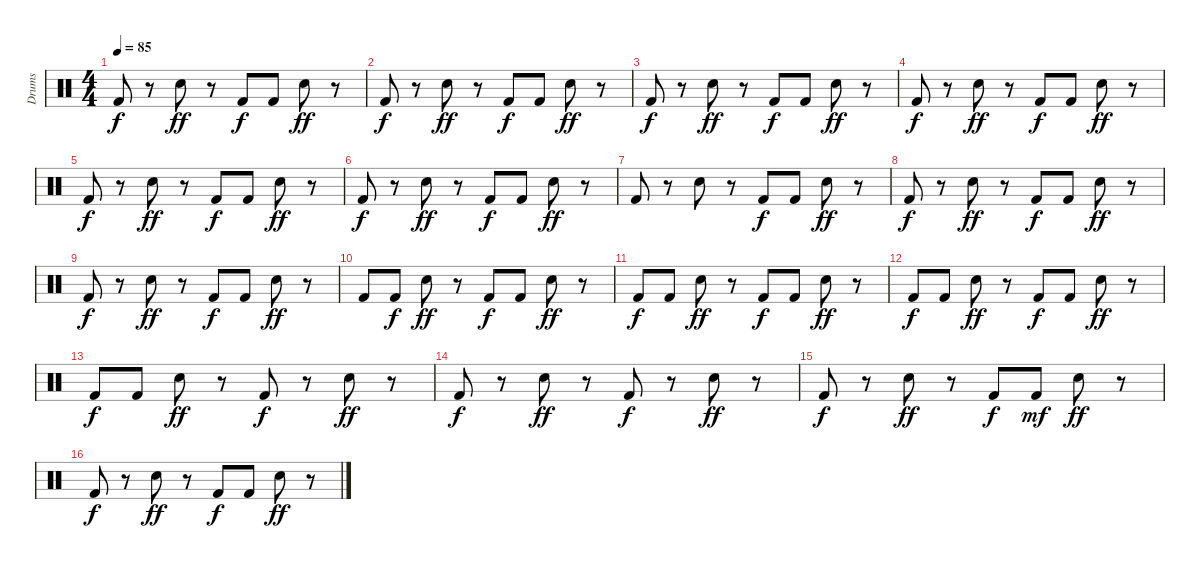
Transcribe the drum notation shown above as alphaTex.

\track ("Drums               " "Drums     ") {instrument percussion}
\staff {score}
\articulation defaults
\ts (4 4)
\tempo 85
\clef neutral
\ks c "Kick (hit) 2".8{dy f}
r.8 "Electric Snare (hit)".8{dy ff} r.8 "Kick (hit) 2".8{dy f} "Kick (hit) 2".8 "Electric Snare (hit)".8{dy ff} r.8 |
"Kick (hit) 2".8{dy f} r.8 "Electric Snare (hit)".8{dy ff} r.8 "Kick (hit) 2".8{dy f} "Kick (hit) 2".8 "Electric Snare (hit)".8{dy ff} r.8 |
"Kick (hit) 2".8{dy f} r.8 "Electric Snare (hit)".8{dy ff} r.8 "Kick (hit) 2".8{dy f} "Kick (hit) 2".8 "Electric Snare (hit)".8{dy ff} r.8 |
"Kick (hit) 2".8{dy f} r.8 "Electric Snare (hit)".8{dy ff} r.8 "Kick (hit) 2".8{dy f} "Kick (hit) 2".8 "Electric Snare (hit)".8{dy ff} r.8 |
"Kick (hit) 2".8{dy f} r.8 "Electric Snare (hit)".8{dy ff} r.8 "Kick (hit) 2".8{dy f} "Kick (hit) 2".8 "Electric Snare (hit)".8{dy ff} r.8 |
"Kick (hit) 2".8{dy f} r.8 "Electric Snare (hit)".8{dy ff} r.8 "Kick (hit) 2".8{dy f} "Kick (hit) 2".8 "Electric Snare (hit)".8{dy ff} r.8 |
"Kick (hit) 2".8 r.8 "Electric Snare (hit)".8 r.8 "Kick (hit) 2".8{dy f} "Kick (hit) 2".8 "Electric Snare (hit)".8{dy ff} r.8 |
"Kick (hit) 2".8{dy f} r.8 "Electric Snare (hit)".8{dy ff} r.8 "Kick (hit) 2".8{dy f} "Kick (hit) 2".8 "Electric Snare (hit)".8{dy ff} r.8 |
"Kick (hit) 2".8{dy f} r.8 "Electric Snare (hit)".8{dy ff} r.8 "Kick (hit) 2".8{dy f} "Kick (hit) 2".8 "Electric Snare (hit)".8{dy ff} r.8 |
"Kick (hit) 2".8 "Kick (hit) 2".8{dy f} "Electric Snare (hit)".8{dy ff} r.8 "Kick (hit) 2".8{dy f} "Kick (hit) 2".8 "Electric Snare (hit)".8{dy ff} r.8 |
"Kick (hit) 2".8{dy f} "Kick (hit) 2".8 "Electric Snare (hit)".8{dy ff} r.8 "Kick (hit) 2".8{dy f} "Kick (hit) 2".8 "Electric Snare (hit)".8{dy ff} r.8 |
"Kick (hit) 2".8{dy f} "Kick (hit) 2".8 "Electric Snare (hit)".8{dy ff} r.8 "Kick (hit) 2".8{dy f} "Kick (hit) 2".8 "Electric Snare (hit)".8{dy ff} r.8 |
"Kick (hit) 2".8{dy f} "Kick (hit) 2".8 "Electric Snare (hit)".8{dy ff} r.8 "Kick (hit) 2".8{dy f} r.8 "Electric Snare (hit)".8{dy ff} r.8 |
"Kick (hit) 2".8{dy f} r.8 "Electric Snare (hit)".8{dy ff} r.8 "Kick (hit) 2".8{dy f} r.8 "Electric Snare (hit)".8{dy ff} r.8 |
"Kick (hit) 2".8{dy f} r.8 "Electric Snare (hit)".8{dy ff} r.8 "Kick (hit) 2".8{dy f} "Kick (hit) 2".8{dy mf} "Electric Snare (hit)".8{dy ff} r.8 |
"Kick (hit) 2".8{dy f} r.8 "Electric Snare (hit)".8{dy ff} r.8 "Kick (hit) 2".8{dy f} "Kick (hit) 2".8 "Electric Snare (hit)".8{dy ff} r.8
